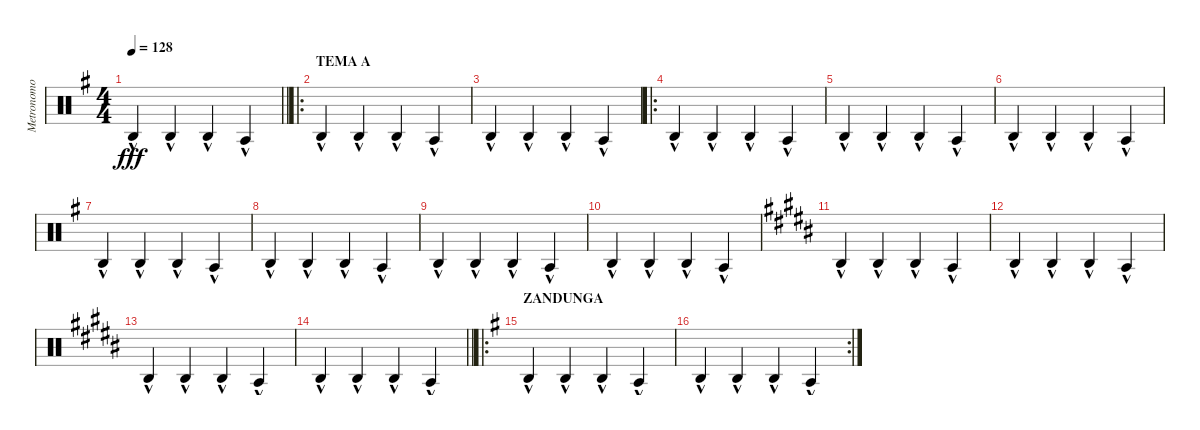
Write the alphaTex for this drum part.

\track ("Metronomo" "Metronomo") {mute instrument percussion}
\staff {score}
\articulation defaults
\ts (4 4)
\tempo 128
\clef neutral
\barLineRight lightlight
\ks eminor "Agogo high (hit)"{hac}.4{dy fff} "Agogo high (hit)"{hac}.4 "Agogo high (hit)"{hac}.4 "Agogo tow (hit)"{hac}.4
|
\ro
\section ("" "TEMA A")
"Agogo high (hit)"{hac}.4 "Agogo high (hit)"{hac}.4 "Agogo high (hit)"{hac}.4 "Agogo tow (hit)"{hac}.4 |
"Agogo high (hit)"{hac}.4 "Agogo high (hit)"{hac}.4 "Agogo high (hit)"{hac}.4 "Agogo tow (hit)"{hac}.4 |
\ro "Agogo high (hit)"{hac}.4 "Agogo high (hit)"{hac}.4 "Agogo high (hit)"{hac}.4 "Agogo tow (hit)"{hac}.4
|
"Agogo high (hit)"{hac}.4 "Agogo high (hit)"{hac}.4 "Agogo high (hit)"{hac}.4 "Agogo tow (hit)"{hac}.4 |
"Agogo high (hit)"{hac}.4 "Agogo high (hit)"{hac}.4 "Agogo high (hit)"{hac}.4 "Agogo tow (hit)"{hac}.4 |
"Agogo high (hit)"{hac}.4 "Agogo high (hit)"{hac}.4 "Agogo high (hit)"{hac}.4 "Agogo tow (hit)"{hac}.4 |
"Agogo high (hit)"{hac}.4 "Agogo high (hit)"{hac}.4 "Agogo high (hit)"{hac}.4 "Agogo tow (hit)"{hac}.4 |
"Agogo high (hit)"{hac}.4 "Agogo high (hit)"{hac}.4 "Agogo high (hit)"{hac}.4 "Agogo tow (hit)"{hac}.4 |
"Agogo high (hit)"{hac}.4 "Agogo high (hit)"{hac}.4 "Agogo high (hit)"{hac}.4 "Agogo tow (hit)"{hac}.4 |
\ks b "Agogo high (hit)"{hac}.4 "Agogo high (hit)"{hac}.4 "Agogo high (hit)"{hac}.4 "Agogo tow (hit)"{hac}.4
|
"Agogo high (hit)"{hac}.4 "Agogo high (hit)"{hac}.4 "Agogo high (hit)"{hac}.4 "Agogo tow (hit)"{hac}.4 |
"Agogo high (hit)"{hac}.4 "Agogo high (hit)"{hac}.4 "Agogo high (hit)"{hac}.4 "Agogo tow (hit)"{hac}.4 |
\barLineRight lightlight "Agogo high (hit)"{hac}.4 "Agogo high (hit)"{hac}.4 "Agogo high (hit)"{hac}.4 "Agogo tow (hit)"{hac}.4
|
\ro
\section ("" "ZANDUNGA")
\ks eminor "Agogo high (hit)"{hac}.4 "Agogo high (hit)"{hac}.4 "Agogo high (hit)"{hac}.4 "Agogo tow (hit)"{hac}.4
|
\rc 2 "Agogo high (hit)"{hac}.4 "Agogo high (hit)"{hac}.4 "Agogo high (hit)"{hac}.4 "Agogo tow (hit)"{hac}.4
